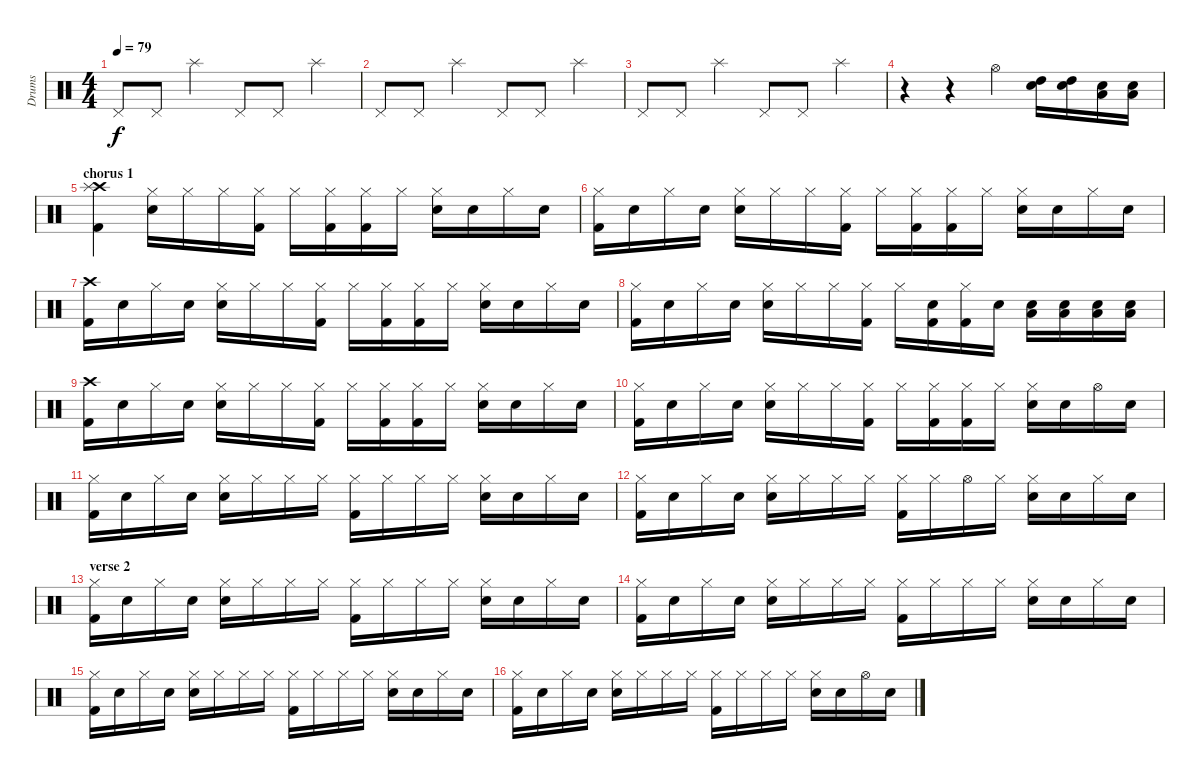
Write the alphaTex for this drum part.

\track ("Drums" "Drums") {instrument percussion}
\staff {score}
\articulation defaults
\ts (4 4)
\tempo 79
\clef neutral
\ks c "Pedal Hi-Hat (hit)".8{dy f volume 10} "Pedal Hi-Hat (hit)".8 "Splash (hit)".4 "Pedal Hi-Hat (hit)".8 "Pedal Hi-Hat (hit)".8 "Splash (hit)".4
|
"Pedal Hi-Hat (hit)".8 "Pedal Hi-Hat (hit)".8 "Splash (hit)".4 "Pedal Hi-Hat (hit)".8 "Pedal Hi-Hat (hit)".8 "Splash (hit)".4 |
"Pedal Hi-Hat (hit)".8 "Pedal Hi-Hat (hit)".8 "Splash (hit)".4 "Pedal Hi-Hat (hit)".8 "Pedal Hi-Hat (hit)".8 "Splash (hit)".4 |
r.4 r.4 "Hi-Hat (open)".4{volume 15} ("Snare (hit) 2" "High Tom (hit)").16 ("Snare (hit) 2" "High Tom (hit)").16 ("Snare (hit) 2" "Low Tom (hit)").16 ("Snare (hit) 2" "Low Tom (hit)").16 |
\section ("" "chorus 1")
("Crash high (hit)" "Splash (hit)" "Kick (hit) 2").4 ("Hi-Hat (closed)" "Snare (hit) 2").16 "Hi-Hat (closed)"{x}.16 "Hi-Hat (closed)".16 ("Hi-Hat (closed)"{x} "Kick (hit) 2").16 "Hi-Hat (closed)".16 ("Hi-Hat (closed)"{x} "Kick (hit) 2").16 ("Hi-Hat (closed)" "Kick (hit) 2").16 "Hi-Hat (closed)"{x}.16 ("Hi-Hat (closed)" "Snare (hit) 2").16 "Snare (hit)"{x}.16 "Hi-Hat (closed)".16 "Snare (hit)"{x}.16 |
("Hi-Hat (closed)" "Kick (hit) 2").16 "Snare (hit)"{x}.16 "Hi-Hat (closed)".16 "Snare (hit)"{x}.16 ("Hi-Hat (closed)" "Snare (hit) 2").16 "Hi-Hat (closed)"{x}.16 "Hi-Hat (closed)".16 ("Hi-Hat (closed)"{x} "Kick (hit) 2").16 "Hi-Hat (closed)".16 ("Hi-Hat (closed)"{x} "Kick (hit) 2").16 ("Hi-Hat (closed)" "Kick (hit) 2").16 "Hi-Hat (closed)"{x}.16 ("Hi-Hat (closed)" "Snare (hit) 2").16 "Snare (hit)"{x}.16 "Hi-Hat (closed)".16 "Snare (hit)"{x}.16 |
("Crash high (hit)" "Kick (hit) 2").16 "Snare (hit)"{x}.16 "Hi-Hat (closed)".16 "Snare (hit)"{x}.16 ("Hi-Hat (closed)" "Snare (hit) 2").16 "Hi-Hat (closed)"{x}.16 "Hi-Hat (closed)".16 ("Hi-Hat (closed)"{x} "Kick (hit) 2").16 "Hi-Hat (closed)".16 ("Hi-Hat (closed)"{x} "Kick (hit) 2").16 ("Hi-Hat (closed)" "Kick (hit) 2").16 "Hi-Hat (closed)"{x}.16 ("Hi-Hat (closed)" "Snare (hit) 2").16 "Snare (hit)"{x}.16 "Hi-Hat (closed)".16 "Snare (hit)"{x}.16 |
("Hi-Hat (closed)" "Kick (hit) 2").16 "Snare (hit)"{x}.16 "Hi-Hat (closed)".16 "Snare (hit)"{x}.16 ("Hi-Hat (closed)" "Snare (hit) 2").16 "Hi-Hat (closed)"{x}.16 "Hi-Hat (closed)".16 ("Hi-Hat (closed)"{x} "Kick (hit) 2").16 "Hi-Hat (closed)".16 ("Snare (hit)"{x} "Kick (hit) 2").16 ("Hi-Hat (closed)" "Kick (hit) 2").16 "Snare (hit)"{x}.16 ("Snare (hit) 2" "Low Tom (hit)").16 ("Snare (hit) 2" "Low Tom (hit)").16 ("Snare (hit) 2" "Low Floor Tom (hit)").16 ("Snare (hit) 2" "Low Floor Tom (hit)").16 |
("Crash high (hit)" "Kick (hit) 2").16 "Snare (hit)"{x}.16 "Hi-Hat (closed)".16 "Snare (hit)"{x}.16 ("Hi-Hat (closed)" "Snare (hit) 2").16 "Hi-Hat (closed)"{x}.16 "Hi-Hat (closed)".16 ("Hi-Hat (closed)"{x} "Kick (hit) 2").16 "Hi-Hat (closed)".16 ("Hi-Hat (closed)"{x} "Kick (hit) 2").16 ("Hi-Hat (closed)" "Kick (hit) 2").16 "Hi-Hat (closed)"{x}.16 ("Hi-Hat (closed)" "Snare (hit) 2").16 "Snare (hit)"{x}.16 "Hi-Hat (closed)".16 "Snare (hit)"{x}.16 |
("Hi-Hat (closed)" "Kick (hit) 2").16 "Snare (hit)"{x}.16 "Hi-Hat (closed)".16 "Snare (hit)"{x}.16 ("Hi-Hat (closed)" "Snare (hit) 2").16 "Hi-Hat (closed)"{x}.16 "Hi-Hat (closed)".16 ("Hi-Hat (closed)"{x} "Kick (hit) 2").16 "Hi-Hat (closed)".16 ("Hi-Hat (closed)"{x} "Kick (hit) 2").16 ("Hi-Hat (closed)" "Kick (hit) 2").16 "Hi-Hat (closed)"{x}.16 ("Hi-Hat (closed)" "Snare (hit) 2").16 "Snare (hit)"{x}.16 "Hi-Hat (open)".16 "Snare (hit)"{x}.16 |
("Hi-Hat (closed)" "Kick (hit) 2").16 "Snare (hit)"{x}.16 "Hi-Hat (closed)".16 "Snare (hit)"{x}.16 ("Hi-Hat (closed)" "Snare (hit) 2").16 "Hi-Hat (closed)"{x}.16 "Hi-Hat (closed)".16 "Hi-Hat (closed)"{x}.16 ("Hi-Hat (closed)" "Kick (hit) 2").16 "Hi-Hat (closed)"{x}.16 "Hi-Hat (closed)".16 "Hi-Hat (closed)"{x}.16 ("Hi-Hat (closed)" "Snare (hit) 2").16 "Snare (hit)"{x}.16 "Hi-Hat (closed)".16 "Snare (hit)"{x}.16 |
("Hi-Hat (closed)" "Kick (hit) 2").16 "Snare (hit)"{x}.16 "Hi-Hat (closed)".16 "Snare (hit)"{x}.16 ("Hi-Hat (closed)" "Snare (hit) 2").16 "Hi-Hat (closed)"{x}.16 "Hi-Hat (closed)".16 "Hi-Hat (closed)"{x}.16 ("Hi-Hat (closed)" "Kick (hit) 2").16 "Hi-Hat (closed)"{x}.16 "Hi-Hat (open)".16 "Hi-Hat (closed)"{x}.16 ("Hi-Hat (closed)" "Snare (hit) 2").16 "Snare (hit)"{x}.16 "Hi-Hat (closed)".16 "Snare (hit)"{x}.16 |
\section ("" "verse 2")
("Hi-Hat (closed)" "Kick (hit) 2").16 "Snare (hit)"{x}.16 "Hi-Hat (closed)".16 "Snare (hit)"{x}.16 ("Hi-Hat (closed)" "Snare (hit) 2").16 "Hi-Hat (closed)"{x}.16 "Hi-Hat (closed)".16 "Hi-Hat (closed)"{x}.16 ("Hi-Hat (closed)" "Kick (hit) 2").16 "Hi-Hat (closed)"{x}.16 "Hi-Hat (closed)".16 "Hi-Hat (closed)"{x}.16 ("Hi-Hat (closed)" "Snare (hit) 2").16 "Snare (hit)"{x}.16 "Hi-Hat (closed)".16 "Snare (hit)"{x}.16 |
("Hi-Hat (closed)" "Kick (hit) 2").16 "Snare (hit)"{x}.16 "Hi-Hat (closed)".16 "Snare (hit)"{x}.16 ("Hi-Hat (closed)" "Snare (hit) 2").16 "Hi-Hat (closed)"{x}.16 "Hi-Hat (closed)".16 "Hi-Hat (closed)"{x}.16 ("Hi-Hat (closed)" "Kick (hit) 2").16 "Hi-Hat (closed)"{x}.16 "Hi-Hat (closed)".16 "Hi-Hat (closed)"{x}.16 ("Hi-Hat (closed)" "Snare (hit) 2").16 "Snare (hit)"{x}.16 "Hi-Hat (closed)".16 "Snare (hit)"{x}.16 |
("Hi-Hat (closed)" "Kick (hit) 2").16 "Snare (hit)"{x}.16 "Hi-Hat (closed)".16 "Snare (hit)"{x}.16 ("Hi-Hat (closed)" "Snare (hit) 2").16 "Hi-Hat (closed)"{x}.16 "Hi-Hat (closed)".16 "Hi-Hat (closed)"{x}.16 ("Hi-Hat (closed)" "Kick (hit) 2").16 "Hi-Hat (closed)"{x}.16 "Hi-Hat (closed)".16 "Hi-Hat (closed)"{x}.16 ("Hi-Hat (closed)" "Snare (hit) 2").16 "Snare (hit)"{x}.16 "Hi-Hat (closed)".16 "Snare (hit)"{x}.16 |
("Hi-Hat (closed)" "Kick (hit) 2").16 "Snare (hit)"{x}.16 "Hi-Hat (closed)".16 "Snare (hit)"{x}.16 ("Hi-Hat (closed)" "Snare (hit) 2").16 "Hi-Hat (closed)"{x}.16 "Hi-Hat (closed)".16 "Hi-Hat (closed)"{x}.16 ("Hi-Hat (closed)" "Kick (hit) 2").16 "Hi-Hat (closed)"{x}.16 "Hi-Hat (closed)".16 "Hi-Hat (closed)"{x}.16 ("Hi-Hat (closed)" "Snare (hit) 2").16 "Snare (hit)"{x}.16 "Hi-Hat (open)".16 "Snare (hit)"{x}.16
